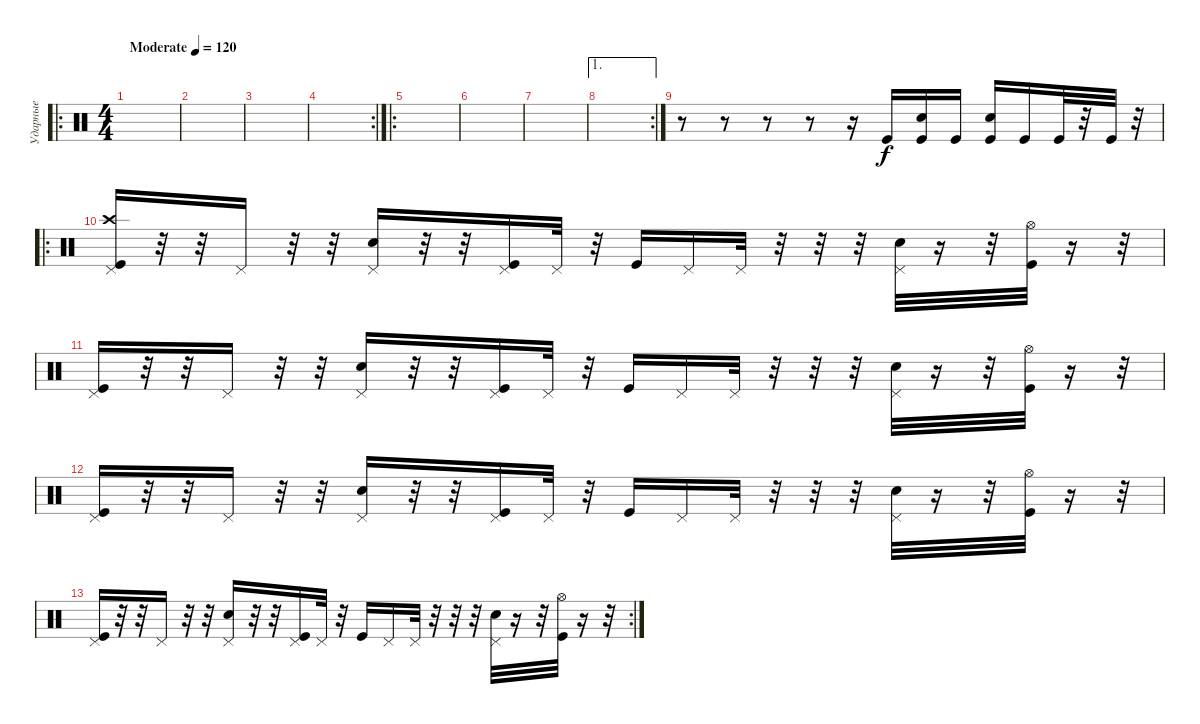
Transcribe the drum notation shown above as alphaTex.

\track ("Ударные" "Ударные") {instrument percussion}
\staff {score}
\articulation defaults
\ro
\ts (4 4)
\tempo (120 "Moderate")
\clef neutral
\ks c
|
|
|
\rc 2
|
\ro
|
|
|
\ae 1
\rc 2
|
r.8 r.8 r.8 r.8 r.16 "Kick (hit)".16 ("Electric Snare (hit)" "Kick (hit)").16 "Kick (hit)".16 ("Electric Snare (hit)" "Kick (hit)").16 "Kick (hit)".16 "Kick (hit)".32 r.32 "Kick (hit)".32 r.32 |
\ro
("Crash high (hit)" "Pedal Hi-Hat (hit)" "Kick (hit)").16 r.32 r.32 "Pedal Hi-Hat (hit)".16 r.32 r.32 ("Snare (hit) 2" "Pedal Hi-Hat (hit)").16 r.32 r.32 ("Pedal Hi-Hat (hit)" "Kick (hit)").16 "Pedal Hi-Hat (hit)".32 r.32 "Kick (hit)".16 "Pedal Hi-Hat (hit)".16 "Pedal Hi-Hat (hit)".32 r.32 r.32 r.32 ("Snare (hit) 2" "Pedal Hi-Hat (hit)").32 r.16 r.32 ("Hi-Hat (open)" "Kick (hit)").32 r.16 r.32 |
("Pedal Hi-Hat (hit)" "Kick (hit)").16 r.32 r.32 "Pedal Hi-Hat (hit)".16 r.32 r.32 ("Snare (hit) 2" "Pedal Hi-Hat (hit)").16 r.32 r.32 ("Pedal Hi-Hat (hit)" "Kick (hit)").16 "Pedal Hi-Hat (hit)".32 r.32 "Kick (hit)".16 "Pedal Hi-Hat (hit)".16 "Pedal Hi-Hat (hit)".32 r.32 r.32 r.32 ("Snare (hit) 2" "Pedal Hi-Hat (hit)").32 r.16 r.32 ("Hi-Hat (open)" "Kick (hit)").32 r.16 r.32 |
("Pedal Hi-Hat (hit)" "Kick (hit)").16 r.32 r.32 "Pedal Hi-Hat (hit)".16 r.32 r.32 ("Electric Snare (hit)" "Pedal Hi-Hat (hit)").16 r.32 r.32 ("Pedal Hi-Hat (hit)" "Kick (hit)").16 "Pedal Hi-Hat (hit)".32 r.32 "Kick (hit)".16 "Pedal Hi-Hat (hit)".16 "Pedal Hi-Hat (hit)".32 r.32 r.32 r.32 ("Electric Snare (hit)" "Pedal Hi-Hat (hit)").32 r.16 r.32 ("Hi-Hat (open)" "Kick (hit)").32 r.16 r.32 |
\rc 2
("Pedal Hi-Hat (hit)" "Kick (hit)").16 r.32 r.32 "Pedal Hi-Hat (hit)".16 r.32 r.32 ("Electric Snare (hit)" "Pedal Hi-Hat (hit)").16 r.32 r.32 ("Pedal Hi-Hat (hit)" "Kick (hit)").16 "Pedal Hi-Hat (hit)".32 r.32 "Kick (hit)".16 "Pedal Hi-Hat (hit)".16 "Pedal Hi-Hat (hit)".32 r.32 r.32 r.32 ("Electric Snare (hit)" "Pedal Hi-Hat (hit)").32 r.16 r.32 ("Hi-Hat (open)" "Kick (hit)").32 r.16 r.32
